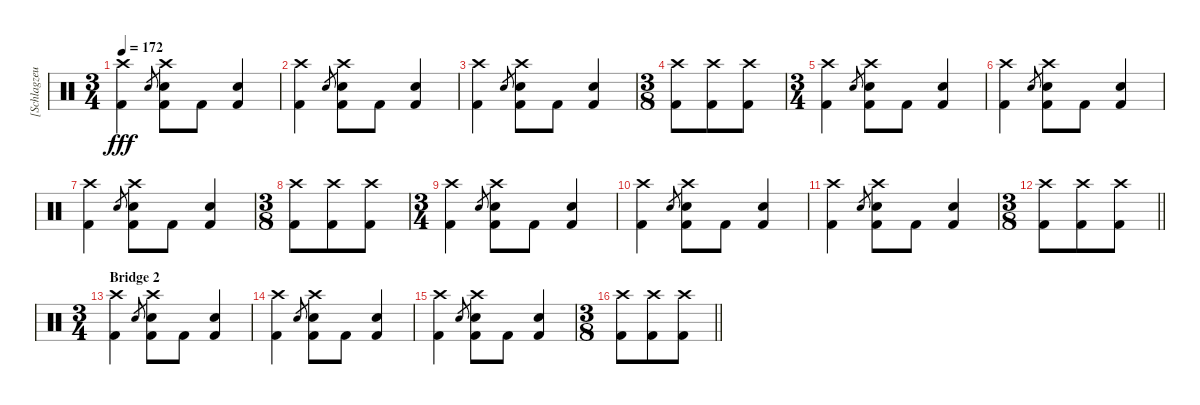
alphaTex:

\track ("[Schlagzeug]" "[Schlagzeu") {instrument percussion}
\staff {score}
\articulation defaults
\ts (3 4)
\tempo 172
\clef neutral
\ks c
("Crash high (hit)" "Kick (hit) 2").4{dy fff} "Electric Snare (hit)".8{gr} ("Crash high (hit)" "Electric Snare (hit)" "Kick (hit) 2").8 "Kick (hit) 2".8 ("Electric Snare (hit)" "Kick (hit) 2").4 |
("Crash high (hit)" "Kick (hit) 2").4 "Electric Snare (hit)".8{gr} ("Crash high (hit)" "Electric Snare (hit)" "Kick (hit) 2").8 "Kick (hit) 2".8 ("Electric Snare (hit)" "Kick (hit) 2").4 |
("Crash high (hit)" "Kick (hit) 2").4 "Electric Snare (hit)".8{gr} ("Crash high (hit)" "Electric Snare (hit)" "Kick (hit) 2").8 "Kick (hit) 2".8 ("Electric Snare (hit)" "Kick (hit) 2").4 |
\ts (3 8)
("Crash high (hit)" "Kick (hit) 2").8 ("Crash high (hit)" "Kick (hit) 2").8 ("Crash high (hit)" "Kick (hit) 2").8 |
\ts (3 4)
("Crash high (hit)" "Kick (hit) 2").4 "Electric Snare (hit)".8{gr} ("Crash high (hit)" "Electric Snare (hit)" "Kick (hit) 2").8 "Kick (hit) 2".8 ("Electric Snare (hit)" "Kick (hit) 2").4 |
("Crash high (hit)" "Kick (hit) 2").4 "Electric Snare (hit)".8{gr} ("Crash high (hit)" "Electric Snare (hit)" "Kick (hit) 2").8 "Kick (hit) 2".8 ("Electric Snare (hit)" "Kick (hit) 2").4 |
("Crash high (hit)" "Kick (hit) 2").4 "Electric Snare (hit)".8{gr} ("Crash high (hit)" "Electric Snare (hit)" "Kick (hit) 2").8 "Kick (hit) 2".8 ("Electric Snare (hit)" "Kick (hit) 2").4 |
\ts (3 8)
("Crash high (hit)" "Kick (hit) 2").8 ("Crash high (hit)" "Kick (hit) 2").8 ("Crash high (hit)" "Kick (hit) 2").8 |
\ts (3 4)
("Crash high (hit)" "Kick (hit) 2").4 "Electric Snare (hit)".8{gr} ("Crash high (hit)" "Electric Snare (hit)" "Kick (hit) 2").8 "Kick (hit) 2".8 ("Electric Snare (hit)" "Kick (hit) 2").4 |
("Crash high (hit)" "Kick (hit) 2").4 "Electric Snare (hit)".8{gr} ("Crash high (hit)" "Electric Snare (hit)" "Kick (hit) 2").8 "Kick (hit) 2".8 ("Electric Snare (hit)" "Kick (hit) 2").4 |
("Crash high (hit)" "Kick (hit) 2").4 "Electric Snare (hit)".8{gr} ("Crash high (hit)" "Electric Snare (hit)" "Kick (hit) 2").8 "Kick (hit) 2".8 ("Electric Snare (hit)" "Kick (hit) 2").4 |
\ts (3 8)
\barLineRight lightlight
("Crash high (hit)" "Kick (hit) 2").8 ("Crash high (hit)" "Kick (hit) 2").8 ("Crash high (hit)" "Kick (hit) 2").8 |
\ts (3 4)
\section ("" "Bridge 2")
("Crash high (hit)" "Kick (hit) 2").4 "Electric Snare (hit)".8{gr} ("Crash high (hit)" "Electric Snare (hit)" "Kick (hit) 2").8 "Kick (hit) 2".8 ("Electric Snare (hit)" "Kick (hit) 2").4 |
("Crash high (hit)" "Kick (hit) 2").4 "Electric Snare (hit)".8{gr} ("Crash high (hit)" "Electric Snare (hit)" "Kick (hit) 2").8 "Kick (hit) 2".8 ("Electric Snare (hit)" "Kick (hit) 2").4 |
("Crash high (hit)" "Kick (hit) 2").4 "Electric Snare (hit)".8{gr} ("Crash high (hit)" "Electric Snare (hit)" "Kick (hit) 2").8 "Kick (hit) 2".8 ("Electric Snare (hit)" "Kick (hit) 2").4 |
\ts (3 8)
\barLineRight lightlight
("Crash high (hit)" "Kick (hit) 2").8 ("Crash high (hit)" "Kick (hit) 2").8 ("Crash high (hit)" "Kick (hit) 2").8
